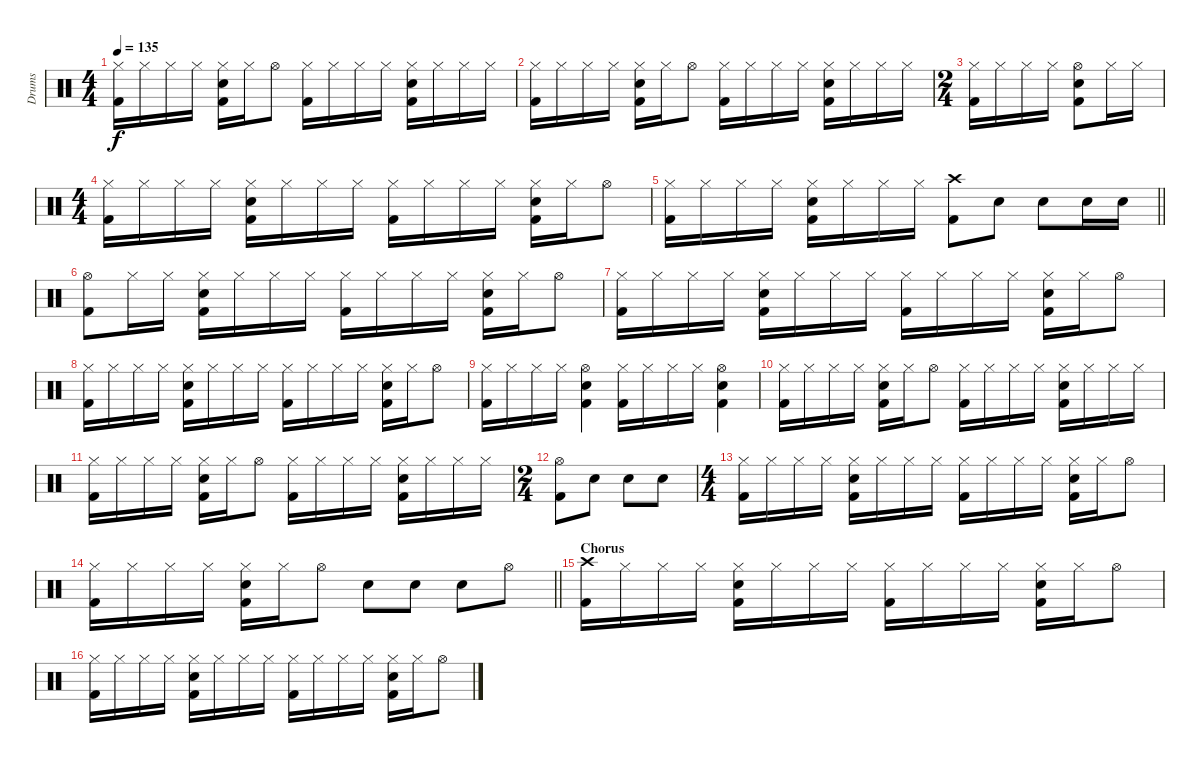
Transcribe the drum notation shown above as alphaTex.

\track ("Drums" "Drums") {instrument percussion}
\staff {score}
\articulation defaults
\ts (4 4)
\tempo 135
\clef neutral
\ks c
("Hi-Hat (closed)" "Kick (hit) 2").16{dy f} "Hi-Hat (closed)".16 "Hi-Hat (closed)".16 "Hi-Hat (closed)".16 ("Hi-Hat (closed)" "Electric Snare (hit)" "Kick (hit) 2").16 "Hi-Hat (closed)".16 "Hi-Hat (open)".8 ("Hi-Hat (closed)" "Kick (hit) 2").16 "Hi-Hat (closed)".16 "Hi-Hat (closed)".16 "Hi-Hat (closed)".16 ("Hi-Hat (closed)" "Electric Snare (hit)" "Kick (hit) 2").16 "Hi-Hat (closed)".16 "Hi-Hat (closed)".16 "Hi-Hat (closed)".16 |
("Hi-Hat (closed)" "Kick (hit) 2").16 "Hi-Hat (closed)".16 "Hi-Hat (closed)".16 "Hi-Hat (closed)".16 ("Hi-Hat (closed)" "Electric Snare (hit)" "Kick (hit) 2").16 "Hi-Hat (closed)".16 "Hi-Hat (open)".8 ("Hi-Hat (closed)" "Kick (hit) 2").16 "Hi-Hat (closed)".16 "Hi-Hat (closed)".16 "Hi-Hat (closed)".16 ("Hi-Hat (closed)" "Electric Snare (hit)" "Kick (hit) 2").16 "Hi-Hat (closed)".16 "Hi-Hat (closed)".16 "Hi-Hat (closed)".16 |
\ts (2 4)
("Hi-Hat (closed)" "Kick (hit) 2").16 "Hi-Hat (closed)".16 "Hi-Hat (closed)".16 "Hi-Hat (closed)".16 ("Hi-Hat (open)" "Electric Snare (hit)" "Kick (hit) 2").8 "Hi-Hat (closed)".16 "Hi-Hat (closed)".16 |
\ts (4 4)
("Hi-Hat (closed)" "Kick (hit) 2").16 "Hi-Hat (closed)".16 "Hi-Hat (closed)".16 "Hi-Hat (closed)".16 ("Hi-Hat (closed)" "Electric Snare (hit)" "Kick (hit) 2").16 "Hi-Hat (closed)".16 "Hi-Hat (closed)".16 "Hi-Hat (closed)".16 ("Hi-Hat (closed)" "Kick (hit) 2").16 "Hi-Hat (closed)".16 "Hi-Hat (closed)".16 "Hi-Hat (closed)".16 ("Hi-Hat (closed)" "Electric Snare (hit)" "Kick (hit) 2").16 "Hi-Hat (closed)".16 "Hi-Hat (open)".8 |
\barLineRight lightlight
("Hi-Hat (closed)" "Kick (hit) 2").16 "Hi-Hat (closed)".16 "Hi-Hat (closed)".16 "Hi-Hat (closed)".16 ("Hi-Hat (closed)" "Electric Snare (hit)" "Kick (hit) 2").16 "Hi-Hat (closed)".16 "Hi-Hat (closed)".16 "Hi-Hat (closed)".16 ("Crash high (hit)" "Kick (hit) 2").8 "Electric Snare (hit)".8 "Electric Snare (hit)".8 "Electric Snare (hit)".16 "Electric Snare (hit)".16 |
("Hi-Hat (open)" "Kick (hit) 2").8 "Hi-Hat (closed)".16 "Hi-Hat (closed)".16 ("Hi-Hat (closed)" "Electric Snare (hit)" "Kick (hit) 2").16 "Hi-Hat (closed)".16 "Hi-Hat (closed)".16 "Hi-Hat (closed)".16 ("Hi-Hat (closed)" "Kick (hit) 2").16 "Hi-Hat (closed)".16 "Hi-Hat (closed)".16 "Hi-Hat (closed)".16 ("Hi-Hat (closed)" "Electric Snare (hit)" "Kick (hit) 2").16 "Hi-Hat (closed)".16 "Hi-Hat (open)".8 |
("Hi-Hat (closed)" "Kick (hit) 2").16 "Hi-Hat (closed)".16 "Hi-Hat (closed)".16 "Hi-Hat (closed)".16 ("Hi-Hat (closed)" "Electric Snare (hit)" "Kick (hit) 2").16 "Hi-Hat (closed)".16 "Hi-Hat (closed)".16 "Hi-Hat (closed)".16 ("Hi-Hat (closed)" "Kick (hit) 2").16 "Hi-Hat (closed)".16 "Hi-Hat (closed)".16 "Hi-Hat (closed)".16 ("Hi-Hat (closed)" "Electric Snare (hit)" "Kick (hit) 2").16 "Hi-Hat (closed)".16 "Hi-Hat (open)".8 |
("Hi-Hat (closed)" "Kick (hit) 2").16 "Hi-Hat (closed)".16 "Hi-Hat (closed)".16 "Hi-Hat (closed)".16 ("Hi-Hat (closed)" "Electric Snare (hit)" "Kick (hit) 2").16 "Hi-Hat (closed)".16 "Hi-Hat (closed)".16 "Hi-Hat (closed)".16 ("Hi-Hat (closed)" "Kick (hit) 2").16 "Hi-Hat (closed)".16 "Hi-Hat (closed)".16 "Hi-Hat (closed)".16 ("Hi-Hat (closed)" "Electric Snare (hit)" "Kick (hit) 2").16 "Hi-Hat (closed)".16 "Hi-Hat (open)".8 |
("Hi-Hat (closed)" "Kick (hit) 2").16 "Hi-Hat (closed)".16 "Hi-Hat (closed)".16 "Hi-Hat (closed)".16 ("Hi-Hat (open)" "Electric Snare (hit)" "Kick (hit) 2").4 ("Hi-Hat (closed)" "Kick (hit) 2").16 "Hi-Hat (closed)".16 "Hi-Hat (closed)".16 "Hi-Hat (closed)".16 ("Hi-Hat (open)" "Electric Snare (hit)" "Kick (hit) 2").4 |
("Hi-Hat (closed)" "Kick (hit) 2").16 "Hi-Hat (closed)".16 "Hi-Hat (closed)".16 "Hi-Hat (closed)".16 ("Hi-Hat (closed)" "Electric Snare (hit)" "Kick (hit) 2").16 "Hi-Hat (closed)".16 "Hi-Hat (open)".8 ("Hi-Hat (closed)" "Kick (hit) 2").16 "Hi-Hat (closed)".16 "Hi-Hat (closed)".16 "Hi-Hat (closed)".16 ("Hi-Hat (closed)" "Electric Snare (hit)" "Kick (hit) 2").16 "Hi-Hat (closed)".16 "Hi-Hat (closed)".16 "Hi-Hat (closed)".16 |
("Hi-Hat (closed)" "Kick (hit) 2").16 "Hi-Hat (closed)".16 "Hi-Hat (closed)".16 "Hi-Hat (closed)".16 ("Hi-Hat (closed)" "Electric Snare (hit)" "Kick (hit) 2").16 "Hi-Hat (closed)".16 "Hi-Hat (open)".8 ("Hi-Hat (closed)" "Kick (hit) 2").16 "Hi-Hat (closed)".16 "Hi-Hat (closed)".16 "Hi-Hat (closed)".16 ("Hi-Hat (closed)" "Electric Snare (hit)" "Kick (hit) 2").16 "Hi-Hat (closed)".16 "Hi-Hat (closed)".16 "Hi-Hat (closed)".16 |
\ts (2 4)
("Hi-Hat (open)" "Kick (hit) 2").8 "Electric Snare (hit)".8 "Electric Snare (hit)".8 "Electric Snare (hit)".8 |
\ts (4 4)
("Hi-Hat (closed)" "Kick (hit) 2").16 "Hi-Hat (closed)".16 "Hi-Hat (closed)".16 "Hi-Hat (closed)".16 ("Hi-Hat (closed)" "Electric Snare (hit)" "Kick (hit) 2").16 "Hi-Hat (closed)".16 "Hi-Hat (closed)".16 "Hi-Hat (closed)".16 ("Hi-Hat (closed)" "Kick (hit) 2").16 "Hi-Hat (closed)".16 "Hi-Hat (closed)".16 "Hi-Hat (closed)".16 ("Hi-Hat (closed)" "Electric Snare (hit)" "Kick (hit) 2").16 "Hi-Hat (closed)".16 "Hi-Hat (open)".8 |
\barLineRight lightlight
("Hi-Hat (closed)" "Kick (hit) 2").16 "Hi-Hat (closed)".16 "Hi-Hat (closed)".16 "Hi-Hat (closed)".16 ("Hi-Hat (closed)" "Electric Snare (hit)" "Kick (hit) 2").16 "Hi-Hat (closed)".16 "Hi-Hat (open)".8 "Electric Snare (hit)".8 "Electric Snare (hit)".8 "Electric Snare (hit)".8 "Hi-Hat (open)".8 |
\section ("" "Chorus")
("Crash high (hit)" "Kick (hit) 2").16 "Hi-Hat (closed)".16 "Hi-Hat (closed)".16 "Hi-Hat (closed)".16 ("Hi-Hat (closed)" "Electric Snare (hit)" "Kick (hit) 2").16 "Hi-Hat (closed)".16 "Hi-Hat (closed)".16 "Hi-Hat (closed)".16 ("Hi-Hat (closed)" "Kick (hit) 2").16 "Hi-Hat (closed)".16 "Hi-Hat (closed)".16 "Hi-Hat (closed)".16 ("Hi-Hat (closed)" "Electric Snare (hit)" "Kick (hit) 2").16 "Hi-Hat (closed)".16 "Hi-Hat (open)".8 |
("Hi-Hat (closed)" "Kick (hit) 2").16 "Hi-Hat (closed)".16 "Hi-Hat (closed)".16 "Hi-Hat (closed)".16 ("Hi-Hat (closed)" "Electric Snare (hit)" "Kick (hit) 2").16 "Hi-Hat (closed)".16 "Hi-Hat (closed)".16 "Hi-Hat (closed)".16 ("Hi-Hat (closed)" "Kick (hit) 2").16 "Hi-Hat (closed)".16 "Hi-Hat (closed)".16 "Hi-Hat (closed)".16 ("Hi-Hat (closed)" "Electric Snare (hit)" "Kick (hit) 2").16 "Hi-Hat (closed)".16 "Hi-Hat (open)".8
